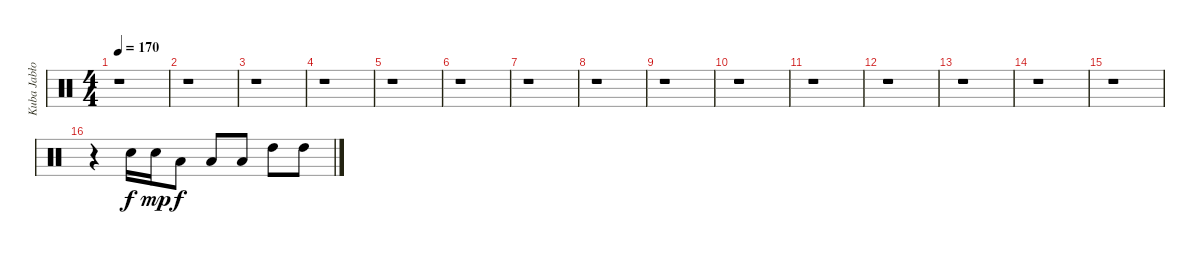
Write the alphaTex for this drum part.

\track ("Kuba Jabłoński" "Kuba Jabło") {instrument percussion}
\staff {score}
\articulation defaults
\ts (4 4)
\tempo 170
\clef neutral
\ks c
r.1{dy f} |
r.1 |
r.1 |
r.1 |
r.1 |
r.1 |
r.1 |
r.1 |
r.1 |
r.1 |
r.1 |
r.1 |
r.1 |
r.1 |
r.1 |
r.4 "Snare (hit) 2".16 "Snare (hit) 2".16{dy mp} "Low Tom (hit)".8{dy f} "Low Tom (hit)".8 "Low Tom (hit)".8 "High Tom (hit)".8 "High Tom (hit)".8
